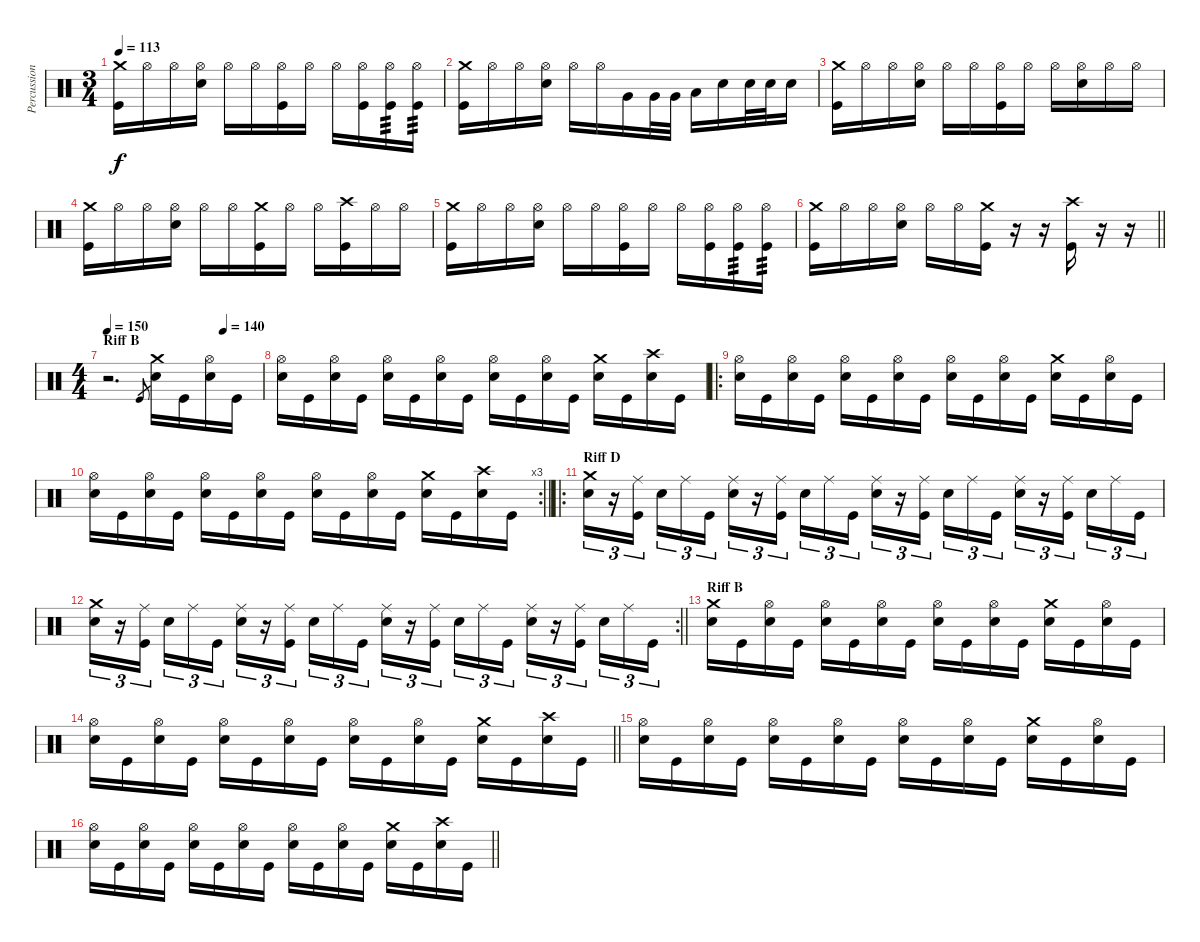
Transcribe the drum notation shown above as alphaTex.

\track ("Percussion" "Percussion") {instrument percussion}
\staff {score}
\articulation defaults
\ts (3 4)
\tempo 113
\clef neutral
\ks c
("Crash medium (hit)" "Kick (hit)").16{dy f} "Hi-Hat (open)".16 "Hi-Hat (open)".16 ("Hi-Hat (open)" "Snare (hit) 2").16 "Hi-Hat (open)".16 "Hi-Hat (open)".16 ("Hi-Hat (open)" "Kick (hit)").16 "Hi-Hat (open)".16 "Hi-Hat (open)".16 ("Hi-Hat (open)" "Kick (hit)").16 ("Hi-Hat (open)" "Kick (hit)").16{tp 3} ("Hi-Hat (open)" "Kick (hit)").16{tp 3} |
("Crash medium (hit)" "Kick (hit)").16 "Hi-Hat (open)".16 "Hi-Hat (open)".16 ("Hi-Hat (open)" "Snare (hit) 2").16 "Hi-Hat (open)".16 "Hi-Hat (open)".16 "Very Low Tom (hit)".16 "Very Low Tom (hit)".32 "Very Low Tom (hit)".32 "Low Floor Tom (hit)".16 "Snare (hit) 2".16 "Snare (hit) 2".32 "Snare (hit) 2".32 "Snare (hit) 2".16 |
("Crash medium (hit)" "Kick (hit)").16 "Hi-Hat (open)".16 "Hi-Hat (open)".16 ("Hi-Hat (open)" "Snare (hit) 2").16 "Hi-Hat (open)".16 "Hi-Hat (open)".16 ("Hi-Hat (open)" "Kick (hit)").16 "Hi-Hat (open)".16 "Hi-Hat (open)".16 ("Hi-Hat (open)" "Snare (hit) 2").16 "Hi-Hat (open)".16 "Hi-Hat (open)".16 |
("Crash medium (hit)" "Kick (hit)").16 "Hi-Hat (open)".16 "Hi-Hat (open)".16 ("Hi-Hat (open)" "Snare (hit) 2").16 "Hi-Hat (open)".16 "Hi-Hat (open)".16 ("Crash medium (hit)" "Kick (hit)").16 "Hi-Hat (open)".16 "Hi-Hat (open)".16 ("Crash high (hit)" "Kick (hit)").16 "Hi-Hat (open)".16 "Hi-Hat (open)".16 |
("Crash medium (hit)" "Kick (hit)").16 "Hi-Hat (open)".16 "Hi-Hat (open)".16 ("Hi-Hat (open)" "Snare (hit) 2").16 "Hi-Hat (open)".16 "Hi-Hat (open)".16 ("Hi-Hat (open)" "Kick (hit)").16 "Hi-Hat (open)".16 "Hi-Hat (open)".16 ("Hi-Hat (open)" "Kick (hit)").16 ("Hi-Hat (open)" "Kick (hit)").16{tp 3} ("Hi-Hat (open)" "Kick (hit)").16{tp 3} |
\barLineRight lightlight
("Crash medium (hit)" "Kick (hit)").16 "Hi-Hat (open)".16 "Hi-Hat (open)".16 ("Hi-Hat (open)" "Snare (hit) 2").16 "Hi-Hat (open)".16 "Hi-Hat (open)".16 ("Crash medium (hit)" "Kick (hit)").16 r.16 r.16 ("Crash high (hit)" "Kick (hit)").16 r.16 r.16 |
\ts (4 4)
\section ("" "Riff B")
\tempo 150
\tempo (140 0.75)
r.2{d} "Kick (hit)".8{gr} ("Snare (hit) 2" "Crash medium (hit)").16 "Kick (hit)".16 ("Snare (hit) 2" "Hi-Hat (open)").16 "Kick (hit)".16 |
("Snare (hit) 2" "Hi-Hat (open)").16 "Kick (hit)".16 ("Snare (hit) 2" "Hi-Hat (open)").16 "Kick (hit)".16 ("Snare (hit) 2" "Hi-Hat (open)").16 "Kick (hit)".16 ("Snare (hit) 2" "Hi-Hat (open)").16 "Kick (hit)".16 ("Snare (hit) 2" "Hi-Hat (open)").16 "Kick (hit)".16 ("Snare (hit) 2" "Hi-Hat (open)").16 "Kick (hit)".16 ("Snare (hit) 2" "Crash medium (hit)").16 "Kick (hit)".16 ("Snare (hit) 2" "Crash high (hit)").16 "Kick (hit)".16 |
\ro
("Snare (hit) 2" "Hi-Hat (open)").16 "Kick (hit)".16 ("Snare (hit) 2" "Hi-Hat (open)").16 "Kick (hit)".16 ("Snare (hit) 2" "Hi-Hat (open)").16 "Kick (hit)".16 ("Snare (hit) 2" "Hi-Hat (open)").16 "Kick (hit)".16 ("Snare (hit) 2" "Hi-Hat (open)").16 "Kick (hit)".16 ("Snare (hit) 2" "Hi-Hat (open)").16 "Kick (hit)".16 ("Snare (hit) 2" "Crash medium (hit)").16 "Kick (hit)".16 ("Snare (hit) 2" "Hi-Hat (open)").16 "Kick (hit)".16 |
\rc 3
\barLineRight lightlight
("Snare (hit) 2" "Hi-Hat (open)").16 "Kick (hit)".16 ("Snare (hit) 2" "Hi-Hat (open)").16 "Kick (hit)".16 ("Snare (hit) 2" "Hi-Hat (open)").16 "Kick (hit)".16 ("Snare (hit) 2" "Hi-Hat (open)").16 "Kick (hit)".16 ("Snare (hit) 2" "Hi-Hat (open)").16 "Kick (hit)".16 ("Snare (hit) 2" "Hi-Hat (open)").16 "Kick (hit)".16 ("Snare (hit) 2" "Crash medium (hit)").16 "Kick (hit)".16 ("Snare (hit) 2" "Crash high (hit)").16 "Kick (hit)".16 |
\ro
\section ("" "Riff D")
("Snare (hit) 2" "Crash medium (hit)").16{tu (3 2)} r.16{tu (3 2)} ("Kick (hit)" "Ride (middle)").16{tu (3 2)} "Snare (hit) 2".16{tu (3 2)} "Ride (middle)".16{tu (3 2)} "Kick (hit)".16{tu (3 2)} ("Snare (hit) 2" "Ride (middle)").16{tu (3 2)} r.16{tu (3 2)} ("Kick (hit)" "Ride (middle)").16{tu (3 2)} "Snare (hit) 2".16{tu (3 2)} "Ride (middle)".16{tu (3 2)} "Kick (hit)".16{tu (3 2)} ("Snare (hit) 2" "Ride (middle)").16{tu (3 2)} r.16{tu (3 2)} ("Kick (hit)" "Ride (middle)").16{tu (3 2)} "Snare (hit) 2".16{tu (3 2)} "Ride (middle)".16{tu (3 2)} "Kick (hit)".16{tu (3 2)} ("Snare (hit) 2" "Ride (middle)").16{tu (3 2)} r.16{tu (3 2)} ("Kick (hit)" "Ride (middle)").16{tu (3 2)} "Snare (hit) 2".16{tu (3 2)} "Ride (middle)".16{tu (3 2)} "Kick (hit)".16{tu (3 2)} |
\rc 2
\barLineRight lightlight
("Snare (hit) 2" "Crash medium (hit)").16{tu (3 2)} r.16{tu (3 2)} ("Kick (hit)" "Ride (middle)").16{tu (3 2)} "Snare (hit) 2".16{tu (3 2)} "Ride (middle)".16{tu (3 2)} "Kick (hit)".16{tu (3 2)} ("Snare (hit) 2" "Ride (middle)").16{tu (3 2)} r.16{tu (3 2)} ("Kick (hit)" "Ride (middle)").16{tu (3 2)} "Snare (hit) 2".16{tu (3 2)} "Ride (middle)".16{tu (3 2)} "Kick (hit)".16{tu (3 2)} ("Snare (hit) 2" "Ride (middle)").16{tu (3 2)} r.16{tu (3 2)} ("Kick (hit)" "Ride (middle)").16{tu (3 2)} "Snare (hit) 2".16{tu (3 2)} "Ride (middle)".16{tu (3 2)} "Kick (hit)".16{tu (3 2)} ("Snare (hit) 2" "Ride (middle)").16{tu (3 2)} r.16{tu (3 2)} ("Kick (hit)" "Ride (middle)").16{tu (3 2)} "Snare (hit) 2".16{tu (3 2)} "Ride (middle)".16{tu (3 2)} "Kick (hit)".16{tu (3 2)} |
\section ("" "Riff B")
("Snare (hit) 2" "Crash medium (hit)").16 "Kick (hit)".16 ("Snare (hit) 2" "Hi-Hat (open)").16 "Kick (hit)".16 ("Snare (hit) 2" "Hi-Hat (open)").16 "Kick (hit)".16 ("Snare (hit) 2" "Hi-Hat (open)").16 "Kick (hit)".16 ("Snare (hit) 2" "Hi-Hat (open)").16 "Kick (hit)".16 ("Snare (hit) 2" "Hi-Hat (open)").16 "Kick (hit)".16 ("Snare (hit) 2" "Crash medium (hit)").16 "Kick (hit)".16 ("Snare (hit) 2" "Hi-Hat (open)").16 "Kick (hit)".16 |
\barLineRight lightlight
("Snare (hit) 2" "Hi-Hat (open)").16 "Kick (hit)".16 ("Snare (hit) 2" "Hi-Hat (open)").16 "Kick (hit)".16 ("Snare (hit) 2" "Hi-Hat (open)").16 "Kick (hit)".16 ("Snare (hit) 2" "Hi-Hat (open)").16 "Kick (hit)".16 ("Snare (hit) 2" "Hi-Hat (open)").16 "Kick (hit)".16 ("Snare (hit) 2" "Hi-Hat (open)").16 "Kick (hit)".16 ("Snare (hit) 2" "Crash medium (hit)").16 "Kick (hit)".16 ("Snare (hit) 2" "Crash high (hit)").16 "Kick (hit)".16 |
("Snare (hit) 2" "Hi-Hat (open)").16 "Kick (hit)".16 ("Snare (hit) 2" "Hi-Hat (open)").16 "Kick (hit)".16 ("Snare (hit) 2" "Hi-Hat (open)").16 "Kick (hit)".16 ("Snare (hit) 2" "Hi-Hat (open)").16 "Kick (hit)".16 ("Snare (hit) 2" "Hi-Hat (open)").16 "Kick (hit)".16 ("Snare (hit) 2" "Hi-Hat (open)").16 "Kick (hit)".16 ("Snare (hit) 2" "Crash medium (hit)").16 "Kick (hit)".16 ("Snare (hit) 2" "Hi-Hat (open)").16 "Kick (hit)".16 |
\barLineRight lightlight
("Snare (hit) 2" "Hi-Hat (open)").16 "Kick (hit)".16 ("Snare (hit) 2" "Hi-Hat (open)").16 "Kick (hit)".16 ("Snare (hit) 2" "Hi-Hat (open)").16 "Kick (hit)".16 ("Snare (hit) 2" "Hi-Hat (open)").16 "Kick (hit)".16 ("Snare (hit) 2" "Hi-Hat (open)").16 "Kick (hit)".16 ("Snare (hit) 2" "Hi-Hat (open)").16 "Kick (hit)".16 ("Snare (hit) 2" "Crash medium (hit)").16 "Kick (hit)".16 ("Snare (hit) 2" "Crash high (hit)").16 "Kick (hit)".16
